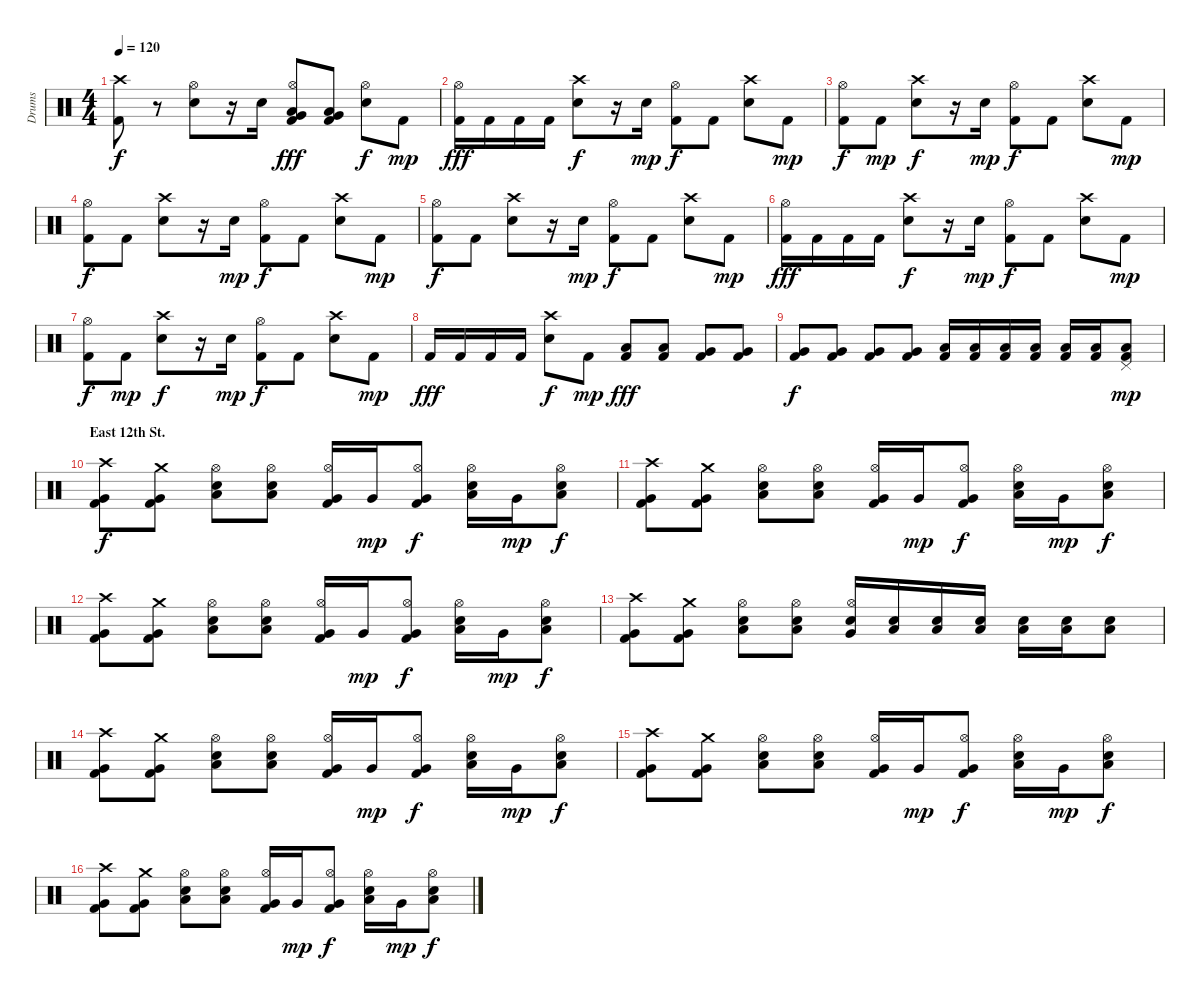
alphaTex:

\track ("Drums" "Drums") {instrument percussion}
\staff {score}
\articulation defaults
\ts (4 4)
\tempo 120
\clef neutral
\ks c
("Kick (hit) 2" "Crash high (hit)").8{dy f} r.8 ("Electric Snare (hit)" "Hi-Hat (open)").8 r.16 "Snare (hit) 2".16 ("Kick (hit) 2" "Very Low Tom (hit)" "Low Floor Tom (hit)" "Hi-Hat (open)").8{dy fff} ("Kick (hit) 2" "Very Low Tom (hit)" "Low Floor Tom (hit)").8 ("Electric Snare (hit)" "Hi-Hat (open)").8{dy f} "Kick (hit) 2".8{dy mp} |
("Kick (hit) 2" "Hi-Hat (open)").16{dy fff} "Kick (hit) 2".16 "Kick (hit) 2".16 "Kick (hit) 2".16 ("Electric Snare (hit)" "Crash high (hit)").8{dy f} r.16 "Snare (hit) 2".16{dy mp} ("Kick (hit) 2" "Hi-Hat (open)").8{dy f} "Kick (hit) 2".8 ("Electric Snare (hit)" "Crash high (hit)").8 "Kick (hit) 2".8{dy mp} |
("Kick (hit) 2" "Hi-Hat (open)").8{dy f} "Kick (hit) 2".8{dy mp} ("Electric Snare (hit)" "Crash high (hit)").8{dy f} r.16 "Snare (hit) 2".16{dy mp} ("Kick (hit) 2" "Hi-Hat (open)").8{dy f} "Kick (hit) 2".8 ("Electric Snare (hit)" "Crash high (hit)").8 "Kick (hit) 2".8{dy mp} |
("Kick (hit) 2" "Hi-Hat (open)").8{dy f} "Kick (hit) 2".8 ("Electric Snare (hit)" "Crash high (hit)").8 r.16 "Snare (hit) 2".16{dy mp} ("Kick (hit) 2" "Hi-Hat (open)").8{dy f} "Kick (hit) 2".8 ("Electric Snare (hit)" "Crash high (hit)").8 "Kick (hit) 2".8{dy mp} |
("Kick (hit) 2" "Hi-Hat (open)").8{dy f} "Kick (hit) 2".8 ("Electric Snare (hit)" "Crash high (hit)").8 r.16 "Snare (hit) 2".16{dy mp} ("Kick (hit) 2" "Hi-Hat (open)").8{dy f} "Kick (hit) 2".8 ("Electric Snare (hit)" "Crash high (hit)").8 "Kick (hit) 2".8{dy mp} |
("Kick (hit) 2" "Hi-Hat (open)").16{dy fff} "Kick (hit) 2".16 "Kick (hit) 2".16 "Kick (hit) 2".16 ("Electric Snare (hit)" "Crash high (hit)").8{dy f} r.16 "Snare (hit) 2".16{dy mp} ("Kick (hit) 2" "Hi-Hat (open)").8{dy f} "Kick (hit) 2".8 ("Electric Snare (hit)" "Crash high (hit)").8 "Kick (hit) 2".8{dy mp} |
("Kick (hit) 2" "Hi-Hat (open)").8{dy f} "Kick (hit) 2".8{dy mp} ("Electric Snare (hit)" "Crash high (hit)").8{dy f} r.16 "Snare (hit) 2".16{dy mp} ("Kick (hit) 2" "Hi-Hat (open)").8{dy f} "Kick (hit) 2".8 ("Electric Snare (hit)" "Crash high (hit)").8 "Kick (hit) 2".8{dy mp} |
"Kick (hit) 2".16{dy fff} "Kick (hit) 2".16 "Kick (hit) 2".16 "Kick (hit) 2".16 ("Electric Snare (hit)" "Crash high (hit)").8{dy f} "Kick (hit) 2".8{dy mp} ("Kick (hit) 2" "Low Floor Tom (hit)").8{dy fff} ("Kick (hit) 2" "Low Floor Tom (hit)").8 ("Kick (hit) 2" "Very Low Tom (hit)").8 ("Kick (hit) 2" "Very Low Tom (hit)").8 |
("Kick (hit) 2" "Very Low Tom (hit)").8{dy f} ("Kick (hit) 2" "Very Low Tom (hit)").8 ("Kick (hit) 2" "Very Low Tom (hit)").8 ("Kick (hit) 2" "Very Low Tom (hit)").8 ("Kick (hit) 2" "Low Floor Tom (hit)").16 ("Kick (hit) 2" "Low Floor Tom (hit)").16 ("Kick (hit) 2" "Low Floor Tom (hit)").16 ("Kick (hit) 2" "Low Floor Tom (hit)").16 ("Kick (hit) 2" "Low Floor Tom (hit)").16 ("Kick (hit) 2" "Low Floor Tom (hit)").16 ("Kick (hit) 2" "Low Floor Tom (hit)" "Pedal Hi-Hat (hit)").8{dy mp} |
\section ("" "East 12th St.")
("Kick (hit) 2" "Very Low Tom (hit)" "Crash high (hit)").8{dy f} ("Kick (hit) 2" "Very Low Tom (hit)" "Crash medium (hit)").8 ("Snare (hit) 2" "Low Floor Tom (hit)" "Hi-Hat (open)").8 ("Snare (hit) 2" "Low Floor Tom (hit)" "Hi-Hat (open)").8 ("Kick (hit) 2" "Very Low Tom (hit)" "Hi-Hat (open)").16 "Very Low Tom (hit)".16{dy mp} ("Kick (hit) 2" "Very Low Tom (hit)" "Hi-Hat (open)").8{dy f} ("Snare (hit) 2" "Low Floor Tom (hit)" "Hi-Hat (open)").16 "Very Low Tom (hit)".16{dy mp} ("Snare (hit) 2" "Low Floor Tom (hit)" "Hi-Hat (open)").8{dy f} |
("Kick (hit) 2" "Very Low Tom (hit)" "Crash high (hit)").8 ("Kick (hit) 2" "Very Low Tom (hit)" "Crash medium (hit)").8 ("Snare (hit) 2" "Low Floor Tom (hit)" "Hi-Hat (open)").8 ("Snare (hit) 2" "Low Floor Tom (hit)" "Hi-Hat (open)").8 ("Kick (hit) 2" "Very Low Tom (hit)" "Hi-Hat (open)").16 "Very Low Tom (hit)".16{dy mp} ("Kick (hit) 2" "Very Low Tom (hit)" "Hi-Hat (open)").8{dy f} ("Snare (hit) 2" "Low Floor Tom (hit)" "Hi-Hat (open)").16 "Very Low Tom (hit)".16{dy mp} ("Snare (hit) 2" "Low Floor Tom (hit)" "Hi-Hat (open)").8{dy f} |
("Kick (hit) 2" "Very Low Tom (hit)" "Crash high (hit)").8 ("Kick (hit) 2" "Very Low Tom (hit)" "Crash medium (hit)").8 ("Snare (hit) 2" "Low Floor Tom (hit)" "Hi-Hat (open)").8 ("Snare (hit) 2" "Low Floor Tom (hit)" "Hi-Hat (open)").8 ("Kick (hit) 2" "Very Low Tom (hit)" "Hi-Hat (open)").16 "Very Low Tom (hit)".16{dy mp} ("Kick (hit) 2" "Very Low Tom (hit)" "Hi-Hat (open)").8{dy f} ("Snare (hit) 2" "Low Floor Tom (hit)" "Hi-Hat (open)").16 "Very Low Tom (hit)".16{dy mp} ("Snare (hit) 2" "Low Floor Tom (hit)" "Hi-Hat (open)").8{dy f} |
("Kick (hit) 2" "Very Low Tom (hit)" "Crash high (hit)").8 ("Kick (hit) 2" "Very Low Tom (hit)" "Crash medium (hit)").8 ("Snare (hit) 2" "Low Floor Tom (hit)" "Hi-Hat (open)").8 ("Snare (hit) 2" "Low Floor Tom (hit)" "Hi-Hat (open)").8 ("Electric Snare (hit)" "Very Low Tom (hit)" "Hi-Hat (open)").16 ("Electric Snare (hit)" "Low Floor Tom (hit)").16 ("Electric Snare (hit)" "Low Floor Tom (hit)").16 ("Electric Snare (hit)" "Low Floor Tom (hit)").16 ("Electric Snare (hit)" "Low Floor Tom (hit)").16 ("Electric Snare (hit)" "Low Floor Tom (hit)").16 ("Electric Snare (hit)" "Low Floor Tom (hit)").8 |
("Kick (hit) 2" "Very Low Tom (hit)" "Crash high (hit)").8 ("Kick (hit) 2" "Very Low Tom (hit)" "Crash medium (hit)").8 ("Snare (hit) 2" "Low Floor Tom (hit)" "Hi-Hat (open)").8 ("Snare (hit) 2" "Low Floor Tom (hit)" "Hi-Hat (open)").8 ("Kick (hit) 2" "Very Low Tom (hit)" "Hi-Hat (open)").16 "Very Low Tom (hit)".16{dy mp} ("Kick (hit) 2" "Very Low Tom (hit)" "Hi-Hat (open)").8{dy f} ("Snare (hit) 2" "Low Floor Tom (hit)" "Hi-Hat (open)").16 "Very Low Tom (hit)".16{dy mp} ("Snare (hit) 2" "Low Floor Tom (hit)" "Hi-Hat (open)").8{dy f} |
("Kick (hit) 2" "Very Low Tom (hit)" "Crash high (hit)").8 ("Kick (hit) 2" "Very Low Tom (hit)" "Crash medium (hit)").8 ("Snare (hit) 2" "Low Floor Tom (hit)" "Hi-Hat (open)").8 ("Snare (hit) 2" "Low Floor Tom (hit)" "Hi-Hat (open)").8 ("Kick (hit) 2" "Very Low Tom (hit)" "Hi-Hat (open)").16 "Very Low Tom (hit)".16{dy mp} ("Kick (hit) 2" "Very Low Tom (hit)" "Hi-Hat (open)").8{dy f} ("Snare (hit) 2" "Low Floor Tom (hit)" "Hi-Hat (open)").16 "Very Low Tom (hit)".16{dy mp} ("Snare (hit) 2" "Low Floor Tom (hit)" "Hi-Hat (open)").8{dy f} |
("Kick (hit) 2" "Very Low Tom (hit)" "Crash high (hit)").8 ("Kick (hit) 2" "Very Low Tom (hit)" "Crash medium (hit)").8 ("Snare (hit) 2" "Low Floor Tom (hit)" "Hi-Hat (open)").8 ("Snare (hit) 2" "Low Floor Tom (hit)" "Hi-Hat (open)").8 ("Kick (hit) 2" "Very Low Tom (hit)" "Hi-Hat (open)").16 "Very Low Tom (hit)".16{dy mp} ("Kick (hit) 2" "Very Low Tom (hit)" "Hi-Hat (open)").8{dy f} ("Snare (hit) 2" "Low Floor Tom (hit)" "Hi-Hat (open)").16 "Very Low Tom (hit)".16{dy mp} ("Snare (hit) 2" "Low Floor Tom (hit)" "Hi-Hat (open)").8{dy f}
